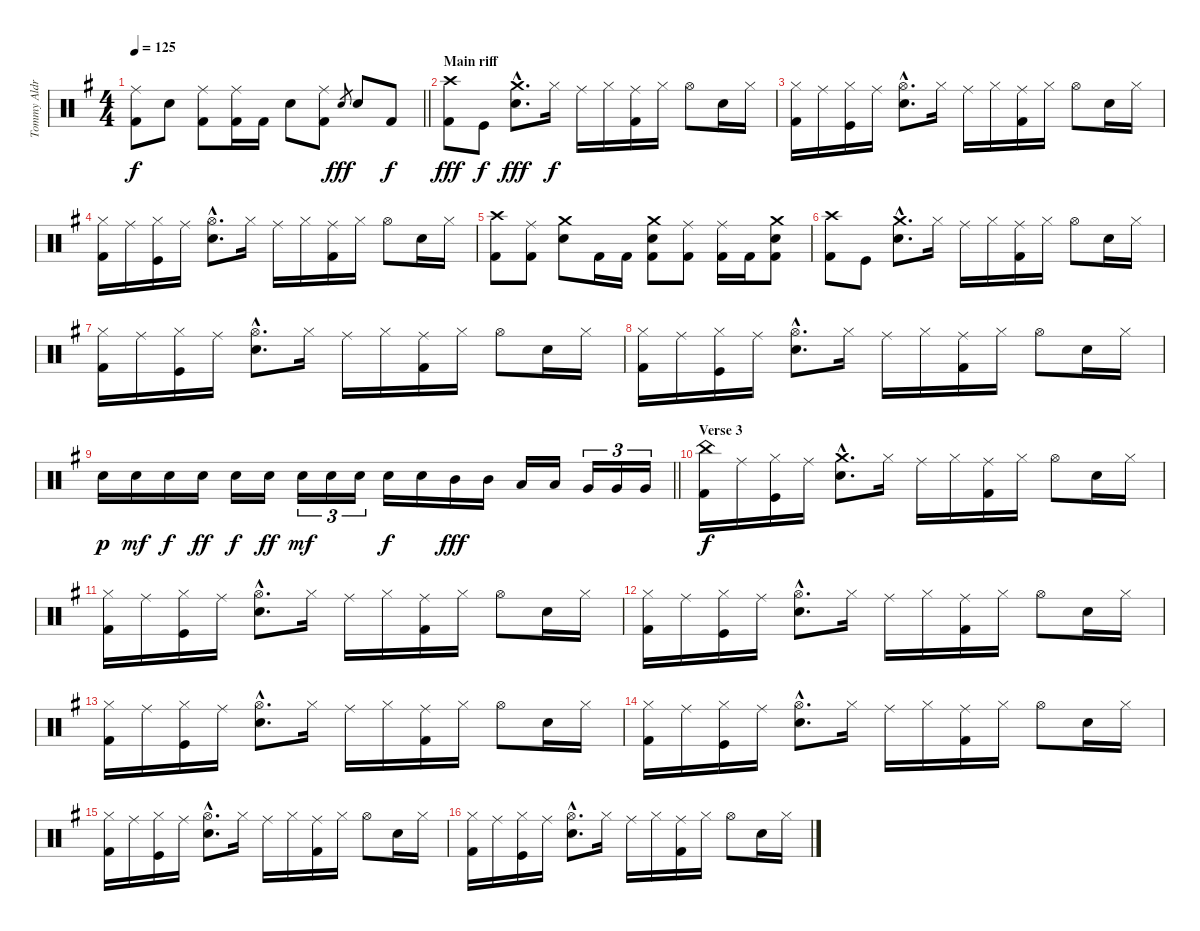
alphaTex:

\track ("Tommy Aldridge" "Tommy Aldr") {instrument percussion}
\staff {score}
\articulation defaults
\ts (4 4)
\tempo 125
\clef neutral
\barLineRight lightlight
\ks eminor
("Ride (middle)" "Kick (hit) 2").8{dy f} "Snare (hit) 2".8 ("Ride (middle)" "Kick (hit) 2").8 ("Ride (middle)" "Kick (hit) 2").16 "Kick (hit) 2".16 "Snare (hit) 2".8 ("Ride (middle)" "Kick (hit) 2").8 "Snare (hit) 2".8{gr dy fff} "Snare (hit) 2".8 "Kick (hit) 2".8{dy f} |
\section ("" "Main riff")
("Crash high (hit)" "Kick (hit) 2").8{dy fff} "Kick (hit)".8{dy f} ("Crash medium (hit)"{hac} "Snare (hit) 2"{hac}).8{d dy fff} "Hi-Hat (closed)".16{dy f} "Ride (middle)".16 "Hi-Hat (closed)".16 ("Ride (middle)" "Kick (hit) 2").16 "Hi-Hat (closed)".16 "Hi-Hat (open)".8 "Snare (hit) 2".16 "Hi-Hat (closed)".16 |
("Hi-Hat (closed)" "Kick (hit) 2").16 "Ride (middle)".16 ("Hi-Hat (closed)" "Kick (hit)").16 "Ride (middle)".16 ("Hi-Hat (open)"{hac} "Snare (hit) 2"{hac}).8{d} "Hi-Hat (closed)".16 "Ride (middle)".16 "Hi-Hat (closed)".16 ("Ride (middle)" "Kick (hit) 2").16 "Hi-Hat (closed)".16 "Hi-Hat (open)".8 "Snare (hit) 2".16 "Hi-Hat (closed)".16 |
("Hi-Hat (closed)" "Kick (hit) 2").16 "Ride (middle)".16 ("Hi-Hat (closed)" "Kick (hit)").16 "Ride (middle)".16 ("Hi-Hat (open)"{hac} "Snare (hit) 2"{hac}).8{d} "Hi-Hat (closed)".16 "Ride (middle)".16 "Hi-Hat (closed)".16 ("Ride (middle)" "Kick (hit) 2").16 "Hi-Hat (closed)".16 "Hi-Hat (open)".8 "Snare (hit) 2".16 "Hi-Hat (closed)".16 |
("Crash high (hit)" "Kick (hit) 2").8 ("Ride (middle)" "Kick (hit) 2").8 ("Crash medium (hit)" "Snare (hit) 2").8 "Kick (hit) 2".16 "Kick (hit) 2".16 ("Crash medium (hit)" "Snare (hit) 2" "Kick (hit) 2").8 ("Ride (middle)" "Kick (hit) 2").8 ("Ride (middle)" "Kick (hit) 2").16 "Kick (hit) 2".16 ("Crash medium (hit)" "Snare (hit) 2" "Kick (hit) 2").8 |
("Crash high (hit)" "Kick (hit) 2").8 "Kick (hit)".8 ("Crash medium (hit)"{hac} "Snare (hit) 2"{hac}).8{d} "Hi-Hat (closed)".16 "Ride (middle)".16 "Hi-Hat (closed)".16 ("Ride (middle)" "Kick (hit) 2").16 "Hi-Hat (closed)".16 "Hi-Hat (open)".8 "Snare (hit) 2".16 "Hi-Hat (closed)".16 |
("Hi-Hat (closed)" "Kick (hit) 2").16 "Ride (middle)".16 ("Hi-Hat (closed)" "Kick (hit)").16 "Ride (middle)".16 ("Hi-Hat (open)"{hac} "Snare (hit) 2"{hac}).8{d} "Hi-Hat (closed)".16 "Ride (middle)".16 "Hi-Hat (closed)".16 ("Ride (middle)" "Kick (hit) 2").16 "Hi-Hat (closed)".16 "Hi-Hat (open)".8 "Snare (hit) 2".16 "Hi-Hat (closed)".16 |
("Hi-Hat (closed)" "Kick (hit) 2").16 "Ride (middle)".16 ("Hi-Hat (closed)" "Kick (hit)").16 "Ride (middle)".16 ("Hi-Hat (open)"{hac} "Snare (hit) 2"{hac}).8{d} "Hi-Hat (closed)".16 "Ride (middle)".16 "Hi-Hat (closed)".16 ("Ride (middle)" "Kick (hit) 2").16 "Hi-Hat (closed)".16 "Hi-Hat (open)".8 "Snare (hit) 2".16 "Hi-Hat (closed)".16 |
\barLineRight lightlight "Snare (hit) 2".16{dy p} "Snare (hit) 2".16{dy mf} "Snare (hit) 2".16{dy f} "Snare (hit) 2".16{dy ff} "Snare (hit) 2".16{dy f} "Snare (hit) 2".16{dy ff} "Snare (hit) 2".16{tu (3 2) dy mf} "Snare (hit) 2".16{tu (3 2)} "Snare (hit) 2".16{tu (3 2)} "Snare (hit) 2".16{dy f} "Snare (hit) 2".16 "Mid Tom (hit)".16{dy fff} "Mid Tom (hit)".16 "Low Tom (hit)".16 "Low Tom (hit)".16 "Very Low Tom (hit)".16{tu (3 2)} "Very Low Tom (hit)".16{tu (3 2)} "Very Low Tom (hit)".16{tu (3 2)}
|
\section ("" "Verse 3")
("China (hit)" "Kick (hit) 2").16{dy f} "Ride (middle)".16 ("Hi-Hat (closed)" "Kick (hit)").16 "Ride (middle)".16 ("Crash medium (hit)"{hac} "Snare (hit) 2"{hac}).8{d} "Hi-Hat (closed)".16 "Ride (middle)".16 "Hi-Hat (closed)".16 ("Ride (middle)" "Kick (hit) 2").16 "Hi-Hat (closed)".16 "Hi-Hat (open)".8 "Snare (hit) 2".16 "Hi-Hat (closed)".16 |
("Hi-Hat (closed)" "Kick (hit) 2").16 "Ride (middle)".16 ("Hi-Hat (closed)" "Kick (hit)").16 "Ride (middle)".16 ("Hi-Hat (open)"{hac} "Snare (hit) 2"{hac}).8{d} "Hi-Hat (closed)".16 "Ride (middle)".16 "Hi-Hat (closed)".16 ("Ride (middle)" "Kick (hit) 2").16 "Hi-Hat (closed)".16 "Hi-Hat (open)".8 "Snare (hit) 2".16 "Hi-Hat (closed)".16 |
("Hi-Hat (closed)" "Kick (hit) 2").16 "Ride (middle)".16 ("Hi-Hat (closed)" "Kick (hit)").16 "Ride (middle)".16 ("Hi-Hat (open)"{hac} "Snare (hit) 2"{hac}).8{d} "Hi-Hat (closed)".16 "Ride (middle)".16 "Hi-Hat (closed)".16 ("Ride (middle)" "Kick (hit) 2").16 "Hi-Hat (closed)".16 "Hi-Hat (open)".8 "Snare (hit) 2".16 "Hi-Hat (closed)".16 |
("Hi-Hat (closed)" "Kick (hit) 2").16 "Ride (middle)".16 ("Hi-Hat (closed)" "Kick (hit)").16 "Ride (middle)".16 ("Hi-Hat (open)"{hac} "Snare (hit) 2"{hac}).8{d} "Hi-Hat (closed)".16 "Ride (middle)".16 "Hi-Hat (closed)".16 ("Ride (middle)" "Kick (hit) 2").16 "Hi-Hat (closed)".16 "Hi-Hat (open)".8 "Snare (hit) 2".16 "Hi-Hat (closed)".16 |
("Hi-Hat (closed)" "Kick (hit) 2").16 "Ride (middle)".16 ("Hi-Hat (closed)" "Kick (hit)").16 "Ride (middle)".16 ("Hi-Hat (open)"{hac} "Snare (hit) 2"{hac}).8{d} "Hi-Hat (closed)".16 "Ride (middle)".16 "Hi-Hat (closed)".16 ("Ride (middle)" "Kick (hit) 2").16 "Hi-Hat (closed)".16 "Hi-Hat (open)".8 "Snare (hit) 2".16 "Hi-Hat (closed)".16 |
("Hi-Hat (closed)" "Kick (hit) 2").16 "Ride (middle)".16 ("Hi-Hat (closed)" "Kick (hit)").16 "Ride (middle)".16 ("Hi-Hat (open)"{hac} "Snare (hit) 2"{hac}).8{d} "Hi-Hat (closed)".16 "Ride (middle)".16 "Hi-Hat (closed)".16 ("Ride (middle)" "Kick (hit) 2").16 "Hi-Hat (closed)".16 "Hi-Hat (open)".8 "Snare (hit) 2".16 "Hi-Hat (closed)".16 |
("Hi-Hat (closed)" "Kick (hit) 2").16 "Ride (middle)".16 ("Hi-Hat (closed)" "Kick (hit)").16 "Ride (middle)".16 ("Hi-Hat (open)"{hac} "Snare (hit) 2"{hac}).8{d} "Hi-Hat (closed)".16 "Ride (middle)".16 "Hi-Hat (closed)".16 ("Ride (middle)" "Kick (hit) 2").16 "Hi-Hat (closed)".16 "Hi-Hat (open)".8 "Snare (hit) 2".16 "Hi-Hat (closed)".16
